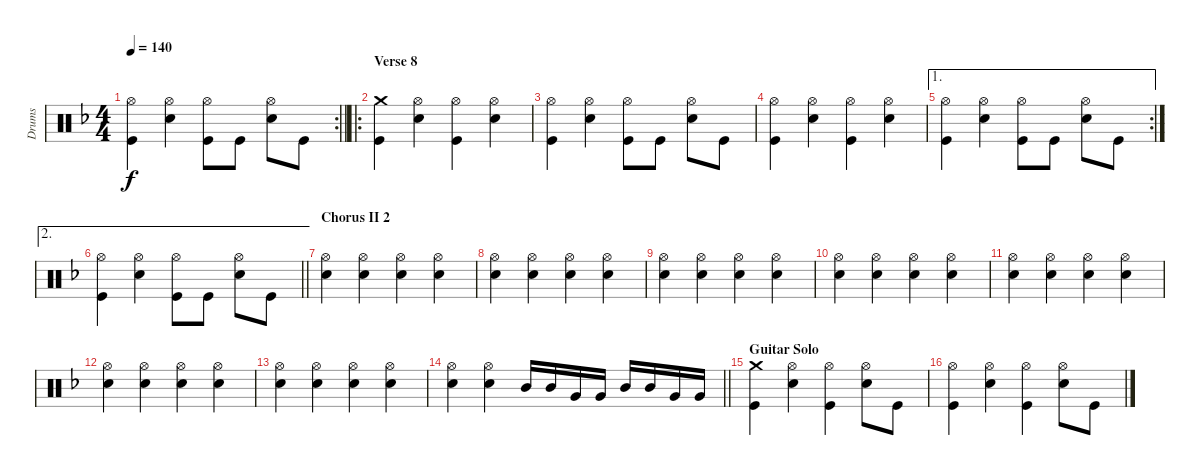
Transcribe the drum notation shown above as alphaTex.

\track ("Drums" "Drums") {instrument percussion}
\staff {score}
\articulation defaults
\rc 2
\ts (4 4)
\tempo 140
\clef neutral
\barLineRight lightlight
\ks f
("Hi-Hat (open)" "Kick (hit)").4{dy f} ("Hi-Hat (open)" "Snare (hit) 2").4 ("Hi-Hat (open)" "Kick (hit)").8 "Kick (hit)".8 ("Hi-Hat (open)" "Snare (hit) 2").8 "Kick (hit)".8 |
\ro
\section ("" "Verse 8")
("Crash medium (hit)" "Kick (hit)").4 ("Hi-Hat (open)" "Snare (hit) 2").4 ("Hi-Hat (open)" "Kick (hit)").4 ("Hi-Hat (open)" "Snare (hit) 2").4 |
("Hi-Hat (open)" "Kick (hit)").4 ("Hi-Hat (open)" "Snare (hit) 2").4 ("Hi-Hat (open)" "Kick (hit)").8 "Kick (hit)".8 ("Hi-Hat (open)" "Snare (hit) 2").8 "Kick (hit)".8 |
("Hi-Hat (open)" "Kick (hit)").4 ("Hi-Hat (open)" "Snare (hit) 2").4 ("Hi-Hat (open)" "Kick (hit)").4 ("Hi-Hat (open)" "Snare (hit) 2").4 |
\ae 1
\rc 2
("Hi-Hat (open)" "Kick (hit)").4 ("Hi-Hat (open)" "Snare (hit) 2").4 ("Hi-Hat (open)" "Kick (hit)").8 "Kick (hit)".8 ("Hi-Hat (open)" "Snare (hit) 2").8 "Kick (hit)".8 |
\ae 2
\barLineRight lightlight
("Hi-Hat (open)" "Kick (hit)").4 ("Hi-Hat (open)" "Snare (hit) 2").4 ("Hi-Hat (open)" "Kick (hit)").8 "Kick (hit)".8 ("Hi-Hat (open)" "Snare (hit) 2").8 "Kick (hit)".8 |
\section ("" "Chorus II 2")
("Hi-Hat (open)" "Snare (hit) 2").4 ("Hi-Hat (open)" "Snare (hit) 2").4 ("Hi-Hat (open)" "Snare (hit) 2").4 ("Hi-Hat (open)" "Snare (hit) 2").4 |
("Hi-Hat (open)" "Snare (hit) 2").4 ("Hi-Hat (open)" "Snare (hit) 2").4 ("Hi-Hat (open)" "Snare (hit) 2").4 ("Hi-Hat (open)" "Snare (hit) 2").4 |
("Hi-Hat (open)" "Snare (hit) 2").4 ("Hi-Hat (open)" "Snare (hit) 2").4 ("Hi-Hat (open)" "Snare (hit) 2").4 ("Hi-Hat (open)" "Snare (hit) 2").4 |
("Hi-Hat (open)" "Snare (hit) 2").4 ("Hi-Hat (open)" "Snare (hit) 2").4 ("Hi-Hat (open)" "Snare (hit) 2").4 ("Hi-Hat (open)" "Snare (hit) 2").4 |
("Hi-Hat (open)" "Snare (hit) 2").4 ("Hi-Hat (open)" "Snare (hit) 2").4 ("Hi-Hat (open)" "Snare (hit) 2").4 ("Hi-Hat (open)" "Snare (hit) 2").4 |
("Hi-Hat (open)" "Snare (hit) 2").4 ("Hi-Hat (open)" "Snare (hit) 2").4 ("Hi-Hat (open)" "Snare (hit) 2").4 ("Hi-Hat (open)" "Snare (hit) 2").4 |
("Hi-Hat (open)" "Snare (hit) 2").4 ("Hi-Hat (open)" "Snare (hit) 2").4 ("Hi-Hat (open)" "Snare (hit) 2").4 ("Hi-Hat (open)" "Snare (hit) 2").4 |
\barLineRight lightlight
("Hi-Hat (open)" "Snare (hit) 2").4 ("Hi-Hat (open)" "Snare (hit) 2").4 "Mid Tom (hit)".16 "Mid Tom (hit)".16 "Very Low Tom (hit)".16 "Very Low Tom (hit)".16 "Mid Tom (hit)".16 "Mid Tom (hit)".16 "Very Low Tom (hit)".16 "Very Low Tom (hit)".16 |
\section ("" "Guitar Solo")
("Crash medium (hit)" "Kick (hit)").4 ("Hi-Hat (open)" "Snare (hit) 2").4 ("Hi-Hat (open)" "Kick (hit)").4 ("Hi-Hat (open)" "Snare (hit) 2").8 "Kick (hit)".8 |
("Hi-Hat (open)" "Kick (hit)").4 ("Hi-Hat (open)" "Snare (hit) 2").4 ("Hi-Hat (open)" "Kick (hit)").4 ("Hi-Hat (open)" "Snare (hit) 2").8 "Kick (hit)".8
